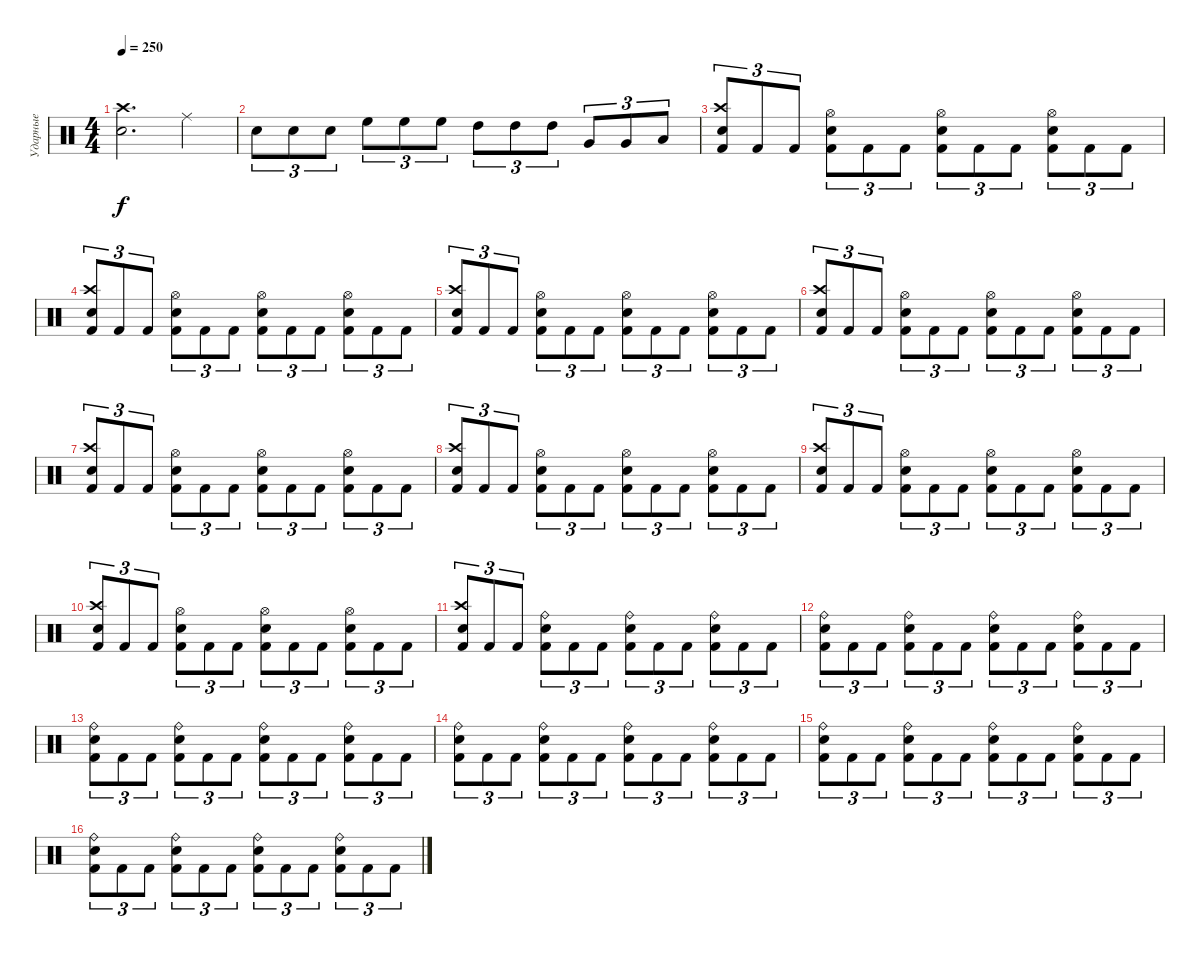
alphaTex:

\track ("Ударные" "Ударные") {instrument percussion}
\staff {score}
\articulation defaults
\ts (4 4)
\tempo 250
\clef neutral
\ks c
("Snare (hit) 2" "Crash high (hit)").2{d dy f} "Ride (middle)".4 |
"Snare (hit) 2".8{tu (3 2)} "Snare (hit) 2".8{tu (3 2)} "Snare (hit) 2".8{tu (3 2)} "High Floor Tom (hit)".8{tu (3 2)} "High Floor Tom (hit)".8{tu (3 2)} "High Floor Tom (hit)".8{tu (3 2)} "High Tom (hit)".8{tu (3 2)} "High Tom (hit)".8{tu (3 2)} "High Tom (hit)".8{tu (3 2)} "Very Low Tom (hit)".8{tu (3 2)} "Very Low Tom (hit)".8{tu (3 2)} "Low Floor Tom (hit)".8{tu (3 2)} |
("Crash high (hit)" "Snare (hit) 2" "Kick (hit) 2").8{tu (3 2)} "Kick (hit) 2".8{tu (3 2)} "Kick (hit) 2".8{tu (3 2)} ("Hi-Hat (open)" "Snare (hit) 2" "Kick (hit) 2").8{tu (3 2)} "Kick (hit) 2".8{tu (3 2)} "Kick (hit) 2".8{tu (3 2)} ("Hi-Hat (open)" "Snare (hit) 2" "Kick (hit) 2").8{tu (3 2)} "Kick (hit) 2".8{tu (3 2)} "Kick (hit) 2".8{tu (3 2)} ("Hi-Hat (open)" "Snare (hit) 2" "Kick (hit) 2").8{tu (3 2)} "Kick (hit) 2".8{tu (3 2)} "Kick (hit) 2".8{tu (3 2)} |
("Crash high (hit)" "Snare (hit) 2" "Kick (hit) 2").8{tu (3 2)} "Kick (hit) 2".8{tu (3 2)} "Kick (hit) 2".8{tu (3 2)} ("Hi-Hat (open)" "Snare (hit) 2" "Kick (hit) 2").8{tu (3 2)} "Kick (hit) 2".8{tu (3 2)} "Kick (hit) 2".8{tu (3 2)} ("Hi-Hat (open)" "Snare (hit) 2" "Kick (hit) 2").8{tu (3 2)} "Kick (hit) 2".8{tu (3 2)} "Kick (hit) 2".8{tu (3 2)} ("Hi-Hat (open)" "Snare (hit) 2" "Kick (hit) 2").8{tu (3 2)} "Kick (hit) 2".8{tu (3 2)} "Kick (hit) 2".8{tu (3 2)} |
("Crash high (hit)" "Snare (hit) 2" "Kick (hit) 2").8{tu (3 2)} "Kick (hit) 2".8{tu (3 2)} "Kick (hit) 2".8{tu (3 2)} ("Hi-Hat (open)" "Snare (hit) 2" "Kick (hit) 2").8{tu (3 2)} "Kick (hit) 2".8{tu (3 2)} "Kick (hit) 2".8{tu (3 2)} ("Hi-Hat (open)" "Snare (hit) 2" "Kick (hit) 2").8{tu (3 2)} "Kick (hit) 2".8{tu (3 2)} "Kick (hit) 2".8{tu (3 2)} ("Hi-Hat (open)" "Snare (hit) 2" "Kick (hit) 2").8{tu (3 2)} "Kick (hit) 2".8{tu (3 2)} "Kick (hit) 2".8{tu (3 2)} |
("Crash high (hit)" "Snare (hit) 2" "Kick (hit) 2").8{tu (3 2)} "Kick (hit) 2".8{tu (3 2)} "Kick (hit) 2".8{tu (3 2)} ("Hi-Hat (open)" "Snare (hit) 2" "Kick (hit) 2").8{tu (3 2)} "Kick (hit) 2".8{tu (3 2)} "Kick (hit) 2".8{tu (3 2)} ("Hi-Hat (open)" "Snare (hit) 2" "Kick (hit) 2").8{tu (3 2)} "Kick (hit) 2".8{tu (3 2)} "Kick (hit) 2".8{tu (3 2)} ("Hi-Hat (open)" "Snare (hit) 2" "Kick (hit) 2").8{tu (3 2)} "Kick (hit) 2".8{tu (3 2)} "Kick (hit) 2".8{tu (3 2)} |
("Crash high (hit)" "Snare (hit) 2" "Kick (hit) 2").8{tu (3 2)} "Kick (hit) 2".8{tu (3 2)} "Kick (hit) 2".8{tu (3 2)} ("Hi-Hat (open)" "Snare (hit) 2" "Kick (hit) 2").8{tu (3 2)} "Kick (hit) 2".8{tu (3 2)} "Kick (hit) 2".8{tu (3 2)} ("Hi-Hat (open)" "Snare (hit) 2" "Kick (hit) 2").8{tu (3 2)} "Kick (hit) 2".8{tu (3 2)} "Kick (hit) 2".8{tu (3 2)} ("Hi-Hat (open)" "Snare (hit) 2" "Kick (hit) 2").8{tu (3 2)} "Kick (hit) 2".8{tu (3 2)} "Kick (hit) 2".8{tu (3 2)} |
("Crash high (hit)" "Snare (hit) 2" "Kick (hit) 2").8{tu (3 2)} "Kick (hit) 2".8{tu (3 2)} "Kick (hit) 2".8{tu (3 2)} ("Hi-Hat (open)" "Snare (hit) 2" "Kick (hit) 2").8{tu (3 2)} "Kick (hit) 2".8{tu (3 2)} "Kick (hit) 2".8{tu (3 2)} ("Hi-Hat (open)" "Snare (hit) 2" "Kick (hit) 2").8{tu (3 2)} "Kick (hit) 2".8{tu (3 2)} "Kick (hit) 2".8{tu (3 2)} ("Hi-Hat (open)" "Snare (hit) 2" "Kick (hit) 2").8{tu (3 2)} "Kick (hit) 2".8{tu (3 2)} "Kick (hit) 2".8{tu (3 2)} |
("Crash high (hit)" "Snare (hit) 2" "Kick (hit) 2").8{tu (3 2)} "Kick (hit) 2".8{tu (3 2)} "Kick (hit) 2".8{tu (3 2)} ("Hi-Hat (open)" "Snare (hit) 2" "Kick (hit) 2").8{tu (3 2)} "Kick (hit) 2".8{tu (3 2)} "Kick (hit) 2".8{tu (3 2)} ("Hi-Hat (open)" "Snare (hit) 2" "Kick (hit) 2").8{tu (3 2)} "Kick (hit) 2".8{tu (3 2)} "Kick (hit) 2".8{tu (3 2)} ("Hi-Hat (open)" "Snare (hit) 2" "Kick (hit) 2").8{tu (3 2)} "Kick (hit) 2".8{tu (3 2)} "Kick (hit) 2".8{tu (3 2)} |
("Crash high (hit)" "Snare (hit) 2" "Kick (hit) 2").8{tu (3 2)} "Kick (hit) 2".8{tu (3 2)} "Kick (hit) 2".8{tu (3 2)} ("Hi-Hat (open)" "Snare (hit) 2" "Kick (hit) 2").8{tu (3 2)} "Kick (hit) 2".8{tu (3 2)} "Kick (hit) 2".8{tu (3 2)} ("Hi-Hat (open)" "Snare (hit) 2" "Kick (hit) 2").8{tu (3 2)} "Kick (hit) 2".8{tu (3 2)} "Kick (hit) 2".8{tu (3 2)} ("Hi-Hat (open)" "Snare (hit) 2" "Kick (hit) 2").8{tu (3 2)} "Kick (hit) 2".8{tu (3 2)} "Kick (hit) 2".8{tu (3 2)} |
("Crash high (hit)" "Snare (hit) 2" "Kick (hit) 2").8{tu (3 2)} "Kick (hit) 2".8{tu (3 2)} "Kick (hit) 2".8{tu (3 2)} ("Ride (bell)" "Snare (hit) 2" "Kick (hit) 2").8{tu (3 2)} "Kick (hit) 2".8{tu (3 2)} "Kick (hit) 2".8{tu (3 2)} ("Ride (bell)" "Snare (hit) 2" "Kick (hit) 2").8{tu (3 2)} "Kick (hit) 2".8{tu (3 2)} "Kick (hit) 2".8{tu (3 2)} ("Ride (bell)" "Snare (hit) 2" "Kick (hit) 2").8{tu (3 2)} "Kick (hit) 2".8{tu (3 2)} "Kick (hit) 2".8{tu (3 2)} |
("Ride (bell)" "Snare (hit) 2" "Kick (hit) 2").8{tu (3 2)} "Kick (hit) 2".8{tu (3 2)} "Kick (hit) 2".8{tu (3 2)} ("Ride (bell)" "Snare (hit) 2" "Kick (hit) 2").8{tu (3 2)} "Kick (hit) 2".8{tu (3 2)} "Kick (hit) 2".8{tu (3 2)} ("Ride (bell)" "Snare (hit) 2" "Kick (hit) 2").8{tu (3 2)} "Kick (hit) 2".8{tu (3 2)} "Kick (hit) 2".8{tu (3 2)} ("Ride (bell)" "Snare (hit) 2" "Kick (hit) 2").8{tu (3 2)} "Kick (hit) 2".8{tu (3 2)} "Kick (hit) 2".8{tu (3 2)} |
("Ride (bell)" "Snare (hit) 2" "Kick (hit) 2").8{tu (3 2)} "Kick (hit) 2".8{tu (3 2)} "Kick (hit) 2".8{tu (3 2)} ("Ride (bell)" "Snare (hit) 2" "Kick (hit) 2").8{tu (3 2)} "Kick (hit) 2".8{tu (3 2)} "Kick (hit) 2".8{tu (3 2)} ("Ride (bell)" "Snare (hit) 2" "Kick (hit) 2").8{tu (3 2)} "Kick (hit) 2".8{tu (3 2)} "Kick (hit) 2".8{tu (3 2)} ("Ride (bell)" "Snare (hit) 2" "Kick (hit) 2").8{tu (3 2)} "Kick (hit) 2".8{tu (3 2)} "Kick (hit) 2".8{tu (3 2)} |
("Ride (bell)" "Snare (hit) 2" "Kick (hit) 2").8{tu (3 2)} "Kick (hit) 2".8{tu (3 2)} "Kick (hit) 2".8{tu (3 2)} ("Ride (bell)" "Snare (hit) 2" "Kick (hit) 2").8{tu (3 2)} "Kick (hit) 2".8{tu (3 2)} "Kick (hit) 2".8{tu (3 2)} ("Ride (bell)" "Snare (hit) 2" "Kick (hit) 2").8{tu (3 2)} "Kick (hit) 2".8{tu (3 2)} "Kick (hit) 2".8{tu (3 2)} ("Ride (bell)" "Snare (hit) 2" "Kick (hit) 2").8{tu (3 2)} "Kick (hit) 2".8{tu (3 2)} "Kick (hit) 2".8{tu (3 2)} |
("Ride (bell)" "Snare (hit) 2" "Kick (hit) 2").8{tu (3 2)} "Kick (hit) 2".8{tu (3 2)} "Kick (hit) 2".8{tu (3 2)} ("Ride (bell)" "Snare (hit) 2" "Kick (hit) 2").8{tu (3 2)} "Kick (hit) 2".8{tu (3 2)} "Kick (hit) 2".8{tu (3 2)} ("Ride (bell)" "Snare (hit) 2" "Kick (hit) 2").8{tu (3 2)} "Kick (hit) 2".8{tu (3 2)} "Kick (hit) 2".8{tu (3 2)} ("Ride (bell)" "Snare (hit) 2" "Kick (hit) 2").8{tu (3 2)} "Kick (hit) 2".8{tu (3 2)} "Kick (hit) 2".8{tu (3 2)} |
("Ride (bell)" "Snare (hit) 2" "Kick (hit) 2").8{tu (3 2)} "Kick (hit) 2".8{tu (3 2)} "Kick (hit) 2".8{tu (3 2)} ("Ride (bell)" "Snare (hit) 2" "Kick (hit) 2").8{tu (3 2)} "Kick (hit) 2".8{tu (3 2)} "Kick (hit) 2".8{tu (3 2)} ("Ride (bell)" "Snare (hit) 2" "Kick (hit) 2").8{tu (3 2)} "Kick (hit) 2".8{tu (3 2)} "Kick (hit) 2".8{tu (3 2)} ("Ride (bell)" "Snare (hit) 2" "Kick (hit) 2").8{tu (3 2)} "Kick (hit) 2".8{tu (3 2)} "Kick (hit) 2".8{tu (3 2)}
